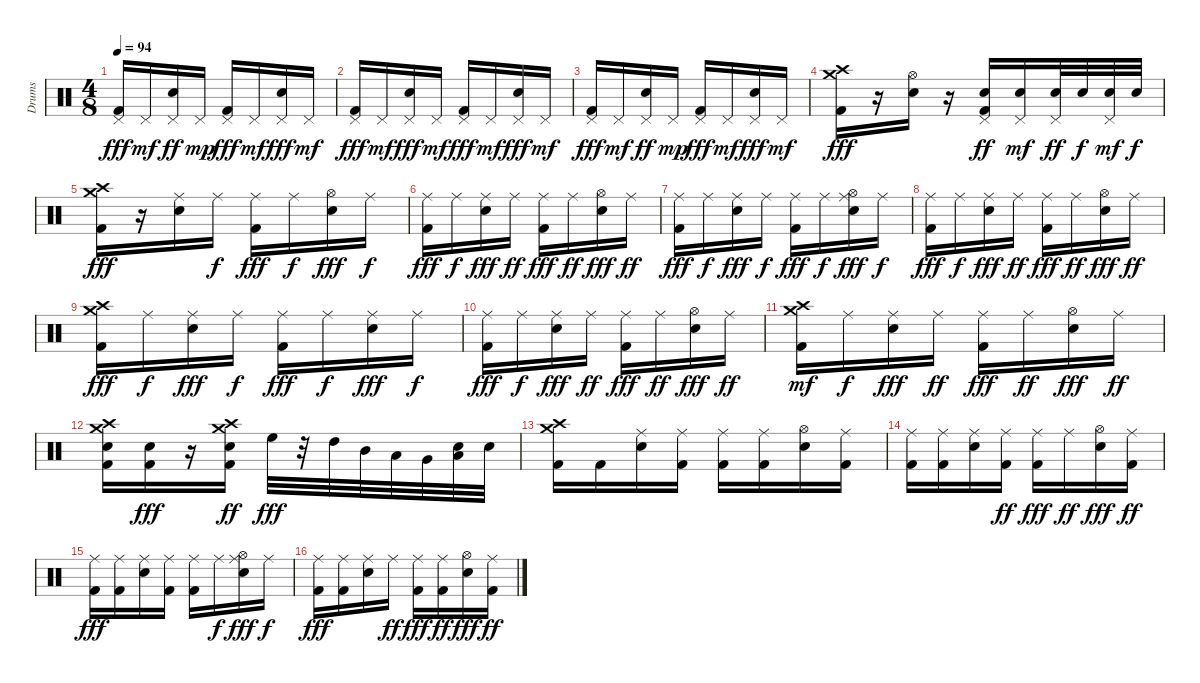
\track ("Drums" "Drums") {instrument percussion}
\staff {score}
\articulation defaults
\ts (4 8)
\tempo 94
\clef neutral
\ks c
("Pedal Hi-Hat (hit)" "Kick (hit) 2").16{dy fff} "Pedal Hi-Hat (hit)".16{dy mf} ("Electric Snare (hit)" "Pedal Hi-Hat (hit)").16{dy ff} "Pedal Hi-Hat (hit)".16{dy mp} ("Pedal Hi-Hat (hit)" "Kick (hit) 2").16{dy fff} "Pedal Hi-Hat (hit)".16{dy mf} ("Pedal Hi-Hat (hit)" "Electric Snare (hit)").16{dy fff} "Pedal Hi-Hat (hit)".16{dy mf} |
("Pedal Hi-Hat (hit)" "Kick (hit) 2").16{dy fff} "Pedal Hi-Hat (hit)".16{dy mf} ("Pedal Hi-Hat (hit)" "Electric Snare (hit)").16{dy fff} "Pedal Hi-Hat (hit)".16{dy mf} ("Pedal Hi-Hat (hit)" "Kick (hit) 2").16{dy fff} "Pedal Hi-Hat (hit)".16{dy mf} ("Pedal Hi-Hat (hit)" "Electric Snare (hit)").16{dy fff} "Pedal Hi-Hat (hit)".16{dy mf} |
("Pedal Hi-Hat (hit)" "Kick (hit) 2").16{dy fff} "Pedal Hi-Hat (hit)".16{dy mf} ("Electric Snare (hit)" "Pedal Hi-Hat (hit)").16{dy ff} "Pedal Hi-Hat (hit)".16{dy mp} ("Pedal Hi-Hat (hit)" "Kick (hit) 2").16{dy fff} "Pedal Hi-Hat (hit)".16{dy mf} ("Pedal Hi-Hat (hit)" "Electric Snare (hit)").16{dy fff} "Pedal Hi-Hat (hit)".16{dy mf} |
("Crash medium (hit)" "Crash high (hit)" "Kick (hit) 2").16{dy fff} r.16 ("Hi-Hat (open)" "Electric Snare (hit)").16 r.16 ("Kick (hit) 2" "Electric Snare (hit)" "Pedal Hi-Hat (hit)").16{dy ff} ("Electric Snare (hit)" "Pedal Hi-Hat (hit)").16{dy mf} ("Electric Snare (hit)" "Pedal Hi-Hat (hit)").32{dy ff} "Electric Snare (hit)".32{dy f} ("Electric Snare (hit)" "Pedal Hi-Hat (hit)").32{dy mf} "Electric Snare (hit)".32{dy f} |
("Crash medium (hit)" "Crash high (hit)" "Kick (hit) 2").16{dy fff} r.16 ("Ride (middle)" "Electric Snare (hit)").16 "Ride (middle)".16{dy f} ("Ride (middle)" "Kick (hit) 2").16{dy fff} "Ride (middle)".16{dy f} ("Hi-Hat (open)" "Electric Snare (hit)").16{dy fff} "Ride (middle)".16{dy f} |
("Ride (middle)" "Kick (hit) 2").16{dy fff} "Ride (middle)".16{dy f} ("Ride (middle)" "Electric Snare (hit)").16{dy fff} "Ride (middle)".16{dy ff} ("Ride (middle)" "Kick (hit) 2").16{dy fff} "Ride (middle)".16{dy ff} ("Hi-Hat (open)" "Electric Snare (hit)").16{dy fff} "Ride (middle)".16{dy ff} |
("Ride (middle)" "Kick (hit) 2").16{dy fff} "Ride (middle)".16{dy f} ("Ride (middle)" "Electric Snare (hit)").16{dy fff} "Ride (middle)".16{dy f} ("Ride (middle)" "Kick (hit) 2").16{dy fff} "Ride (middle)".16{dy f} ("Hi-Hat (open)" "Ride (middle)" "Electric Snare (hit)").16{dy fff} "Ride (middle)".16{dy f} |
("Ride (middle)" "Kick (hit) 2").16{dy fff} "Ride (middle)".16{dy f} ("Ride (middle)" "Electric Snare (hit)").16{dy fff} "Ride (middle)".16{dy ff} ("Ride (middle)" "Kick (hit) 2").16{dy fff} "Ride (middle)".16{dy ff} ("Hi-Hat (open)" "Electric Snare (hit)").16{dy fff} "Ride (middle)".16{dy ff} |
("Crash medium (hit)" "Crash high (hit)" "Kick (hit) 2").16{dy fff} "Ride (middle)".16{dy f} ("Ride (middle)" "Electric Snare (hit)").16{dy fff} "Ride (middle)".16{dy f} ("Ride (middle)" "Kick (hit) 2").16{dy fff} "Ride (middle)".16{dy f} ("Ride (middle)" "Electric Snare (hit)").16{dy fff} "Ride (middle)".16{dy f} |
("Ride (middle)" "Kick (hit) 2").16{dy fff} "Ride (middle)".16{dy f} ("Ride (middle)" "Electric Snare (hit)").16{dy fff} "Ride (middle)".16{dy ff} ("Ride (middle)" "Kick (hit) 2").16{dy fff} "Ride (middle)".16{dy ff} ("Hi-Hat (open)" "Electric Snare (hit)").16{dy fff} "Ride (middle)".16{dy ff} |
("Crash high (hit)" "Kick (hit) 2" "Crash medium (hit)").16{dy mf} "Ride (middle)".16{dy f} ("Ride (middle)" "Electric Snare (hit)").16{dy fff} "Ride (middle)".16{dy ff} ("Ride (middle)" "Kick (hit) 2").16{dy fff} "Ride (middle)".16{dy ff} ("Hi-Hat (open)" "Electric Snare (hit)").16{dy fff} "Ride (middle)".16{dy ff} |
("Electric Snare (hit)" "Kick (hit) 2" "Crash medium (hit)" "Crash high (hit)").16 ("Kick (hit) 2" "Electric Snare (hit)").16{dy fff} r.16 ("Kick (hit) 2" "Electric Snare (hit)" "Crash high (hit)" "Crash medium (hit)").16{dy ff} "High Floor Tom (hit)".32{dy fff} r.32 "High Tom (hit)".32 "Mid Tom (hit)".32 "Low Tom (hit)".32 "Very Low Tom (hit)".32 ("Electric Snare (hit)" "Low Floor Tom (hit)").32 "Electric Snare (hit)".32 |
("Crash medium (hit)" "Crash high (hit)" "Kick (hit) 2").16 "Kick (hit) 2".16 ("Ride (middle)" "Electric Snare (hit)").16 ("Kick (hit) 2" "Ride (middle)").16 ("Ride (middle)" "Kick (hit) 2").16 ("Kick (hit) 2" "Ride (middle)").16 ("Hi-Hat (open)" "Electric Snare (hit)").16 ("Kick (hit) 2" "Ride (middle)").16 |
("Ride (middle)" "Kick (hit) 2").16 ("Kick (hit) 2" "Ride (middle)").16 ("Ride (middle)" "Electric Snare (hit)").16 ("Kick (hit) 2" "Ride (middle)").16{dy ff} ("Ride (middle)" "Kick (hit) 2").16{dy fff} "Ride (middle)".16{dy ff} ("Hi-Hat (open)" "Electric Snare (hit)").16{dy fff} ("Kick (hit) 2" "Ride (middle)").16{dy ff} |
("Ride (middle)" "Kick (hit) 2").16{dy fff} ("Kick (hit) 2" "Ride (middle)").16 ("Ride (middle)" "Electric Snare (hit)").16 ("Kick (hit) 2" "Ride (middle)").16 ("Ride (middle)" "Kick (hit) 2").16 "Ride (middle)".16{dy f} ("Hi-Hat (open)" "Ride (middle)" "Electric Snare (hit)").16{dy fff} "Ride (middle)".16{dy f} |
("Ride (middle)" "Kick (hit) 2").16{dy fff} ("Kick (hit) 2" "Ride (middle)").16 ("Ride (middle)" "Electric Snare (hit)").16 "Ride (middle)".16{dy ff} ("Ride (middle)" "Kick (hit) 2").16{dy fff} ("Kick (hit) 2" "Ride (middle)").16{dy ff} ("Hi-Hat (open)" "Electric Snare (hit)").16{dy fff} ("Kick (hit) 2" "Ride (middle)").16{dy ff}
